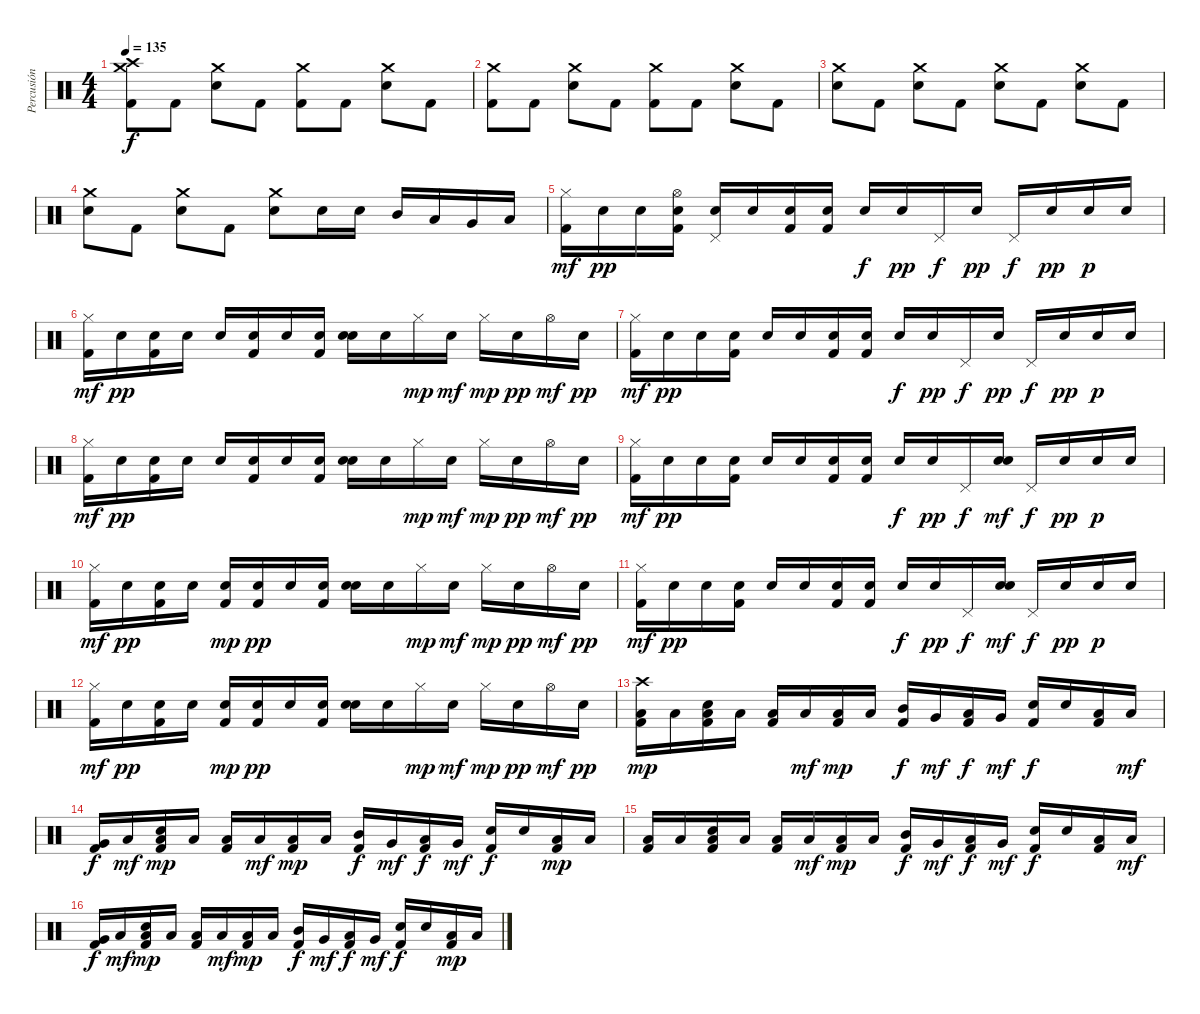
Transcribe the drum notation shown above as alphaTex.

\track ("Percusión" "Percusión") {instrument percussion}
\staff {score}
\articulation defaults
\ts (4 4)
\tempo 135
\clef neutral
\ks c
("Crash high (hit)" "Crash medium (hit)" "Kick (hit) 2").8{dy f} "Kick (hit) 2".8 ("Crash medium (hit)" "Electric Snare (hit)").8 "Kick (hit) 2".8 ("Crash medium (hit)" "Kick (hit) 2").8 "Kick (hit) 2".8 ("Crash medium (hit)" "Electric Snare (hit)").8 "Kick (hit) 2".8 |
("Crash medium (hit)" "Kick (hit) 2").8 "Kick (hit) 2".8 ("Crash medium (hit)" "Electric Snare (hit)").8 "Kick (hit) 2".8 ("Crash medium (hit)" "Kick (hit) 2").8 "Kick (hit) 2".8 ("Crash medium (hit)" "Electric Snare (hit)").8 "Kick (hit) 2".8 |
("Crash medium (hit)" "Electric Snare (hit)").8 "Kick (hit) 2".8 ("Crash medium (hit)" "Electric Snare (hit)").8 "Kick (hit) 2".8 ("Crash medium (hit)" "Electric Snare (hit)").8 "Kick (hit) 2".8 ("Crash medium (hit)" "Electric Snare (hit)").8 "Kick (hit) 2".8 |
("Crash medium (hit)" "Electric Snare (hit)").8 "Kick (hit) 2".8 ("Crash medium (hit)" "Electric Snare (hit)").8 "Kick (hit) 2".8 ("Crash medium (hit)" "Electric Snare (hit)").8 "Electric Snare (hit)".16 "Electric Snare (hit)".16 "Mid Tom (hit)".16 "Low Tom (hit)".16 "Very Low Tom (hit)".16 "Low Floor Tom (hit)".16 |
("Hi-Hat (closed)" "Kick (hit) 2").16{dy mf} "Electric Snare (hit)".16{dy pp} "Electric Snare (hit)".16 ("Hi-Hat (open)" "Electric Snare (hit)" "Kick (hit) 2").16 ("Pedal Hi-Hat (hit)" "Electric Snare (hit)").16 "Electric Snare (hit)".16 ("Electric Snare (hit)" "Kick (hit) 2").16 ("Electric Snare (hit)" "Kick (hit) 2").16 "Electric Snare (hit)".16{dy f} "Electric Snare (hit)".16{dy pp} "Pedal Hi-Hat (hit)".16{dy f} "Electric Snare (hit)".16{dy pp} "Pedal Hi-Hat (hit)".16{dy f} "Electric Snare (hit)".16{dy pp} "Electric Snare (hit)".16{dy p} "Electric Snare (hit)".16 |
("Hi-Hat (closed)" "Kick (hit) 2").16{dy mf} "Electric Snare (hit)".16{dy pp} ("Electric Snare (hit)" "Kick (hit) 2").16 "Electric Snare (hit)".16 "Electric Snare (hit)".16 ("Electric Snare (hit)" "Kick (hit) 2").16 "Electric Snare (hit)".16 ("Electric Snare (hit)" "Kick (hit) 2").16 ("Electric Snare (hit)" "Electric Snare (hit)").16 "Electric Snare (hit)".16 "Hi-Hat (closed)".16{dy mp} "Electric Snare (hit)".16{dy mf} "Hi-Hat (closed)".16{dy mp} "Electric Snare (hit)".16{dy pp} "Hi-Hat (open)".16{dy mf} "Electric Snare (hit)".16{dy pp} |
("Hi-Hat (closed)" "Kick (hit) 2").16{dy mf} "Electric Snare (hit)".16{dy pp} "Electric Snare (hit)".16 ("Electric Snare (hit)" "Kick (hit) 2").16 "Electric Snare (hit)".16 "Electric Snare (hit)".16 ("Electric Snare (hit)" "Kick (hit) 2").16 ("Electric Snare (hit)" "Kick (hit) 2").16 "Electric Snare (hit)".16{dy f} "Electric Snare (hit)".16{dy pp} "Pedal Hi-Hat (hit)".16{dy f} "Electric Snare (hit)".16{dy pp} "Pedal Hi-Hat (hit)".16{dy f} "Electric Snare (hit)".16{dy pp} "Electric Snare (hit)".16{dy p} "Electric Snare (hit)".16 |
("Hi-Hat (closed)" "Kick (hit) 2").16{dy mf} "Electric Snare (hit)".16{dy pp} ("Electric Snare (hit)" "Kick (hit) 2").16 "Electric Snare (hit)".16 "Electric Snare (hit)".16 ("Electric Snare (hit)" "Kick (hit) 2").16 "Electric Snare (hit)".16 ("Electric Snare (hit)" "Kick (hit) 2").16 ("Electric Snare (hit)" "Electric Snare (hit)").16 "Electric Snare (hit)".16 "Hi-Hat (closed)".16{dy mp} "Electric Snare (hit)".16{dy mf} "Hi-Hat (closed)".16{dy mp} "Electric Snare (hit)".16{dy pp} "Hi-Hat (open)".16{dy mf} "Electric Snare (hit)".16{dy pp} |
("Hi-Hat (closed)" "Kick (hit) 2").16{dy mf} "Electric Snare (hit)".16{dy pp} "Electric Snare (hit)".16 ("Electric Snare (hit)" "Kick (hit) 2").16 "Electric Snare (hit)".16 "Electric Snare (hit)".16 ("Electric Snare (hit)" "Kick (hit) 2").16 ("Electric Snare (hit)" "Kick (hit) 2").16 "Electric Snare (hit)".16{dy f} "Electric Snare (hit)".16{dy pp} "Pedal Hi-Hat (hit)".16{dy f} ("Electric Snare (hit)" "Electric Snare (hit)").16{dy mf} "Pedal Hi-Hat (hit)".16{dy f} "Electric Snare (hit)".16{dy pp} "Electric Snare (hit)".16{dy p} "Electric Snare (hit)".16 |
("Hi-Hat (closed)" "Kick (hit) 2").16{dy mf} "Electric Snare (hit)".16{dy pp} ("Electric Snare (hit)" "Kick (hit) 2").16 "Electric Snare (hit)".16 ("Electric Snare (hit)" "Kick (hit) 2").16{dy mp} ("Electric Snare (hit)" "Kick (hit) 2").16{dy pp} "Electric Snare (hit)".16 ("Electric Snare (hit)" "Kick (hit) 2").16 ("Electric Snare (hit)" "Electric Snare (hit)").16 "Electric Snare (hit)".16 "Hi-Hat (closed)".16{dy mp} "Electric Snare (hit)".16{dy mf} "Hi-Hat (closed)".16{dy mp} "Electric Snare (hit)".16{dy pp} "Hi-Hat (open)".16{dy mf} "Electric Snare (hit)".16{dy pp} |
("Hi-Hat (closed)" "Kick (hit) 2").16{dy mf} "Electric Snare (hit)".16{dy pp} "Electric Snare (hit)".16 ("Electric Snare (hit)" "Kick (hit) 2").16 "Electric Snare (hit)".16 "Electric Snare (hit)".16 ("Electric Snare (hit)" "Kick (hit) 2").16 ("Electric Snare (hit)" "Kick (hit) 2").16 "Electric Snare (hit)".16{dy f} "Electric Snare (hit)".16{dy pp} "Pedal Hi-Hat (hit)".16{dy f} ("Electric Snare (hit)" "Electric Snare (hit)").16{dy mf} "Pedal Hi-Hat (hit)".16{dy f} "Electric Snare (hit)".16{dy pp} "Electric Snare (hit)".16{dy p} "Electric Snare (hit)".16 |
("Hi-Hat (closed)" "Kick (hit) 2").16{dy mf} "Electric Snare (hit)".16{dy pp} ("Electric Snare (hit)" "Kick (hit) 2").16 "Electric Snare (hit)".16 ("Electric Snare (hit)" "Kick (hit) 2").16{dy mp} ("Electric Snare (hit)" "Kick (hit) 2").16{dy pp} "Electric Snare (hit)".16 ("Electric Snare (hit)" "Kick (hit) 2").16 ("Electric Snare (hit)" "Electric Snare (hit)").16 "Electric Snare (hit)".16 "Hi-Hat (closed)".16{dy mp} "Electric Snare (hit)".16{dy mf} "Hi-Hat (closed)".16{dy mp} "Electric Snare (hit)".16{dy pp} "Hi-Hat (open)".16{dy mf} "Electric Snare (hit)".16{dy pp} |
("Crash high (hit)" "Low Floor Tom (hit)" "Kick (hit) 2").16{dy mp} "Low Floor Tom (hit)".16 ("Low Floor Tom (hit)" "Electric Snare (hit)" "Kick (hit) 2").16 "Low Floor Tom (hit)".16 ("Low Floor Tom (hit)" "Kick (hit) 2").16 "Low Tom (hit)".16{dy mf} ("Low Floor Tom (hit)" "Kick (hit) 2").16{dy mp} "Low Floor Tom (hit)".16 ("Mid Tom (hit)" "Kick (hit) 2").16{dy f} "Very Low Tom (hit)".16{dy mf} ("Low Tom (hit)" "Kick (hit) 2").16{dy f} "Very Low Tom (hit)".16{dy mf} ("Electric Snare (hit)" "Kick (hit) 2").16{dy f} "Electric Snare (hit)".16 ("Low Tom (hit)" "Kick (hit) 2").16 "Low Floor Tom (hit)".16{dy mf} |
("Very Low Tom (hit)" "Kick (hit) 2").16{dy f} "Low Floor Tom (hit)".16{dy mf} ("Low Floor Tom (hit)" "Electric Snare (hit)" "Kick (hit) 2").16{dy mp} "Low Floor Tom (hit)".16 ("Low Floor Tom (hit)" "Kick (hit) 2").16 "Low Tom (hit)".16{dy mf} ("Low Floor Tom (hit)" "Kick (hit) 2").16{dy mp} "Low Floor Tom (hit)".16 ("Mid Tom (hit)" "Kick (hit) 2").16{dy f} "Very Low Tom (hit)".16{dy mf} ("Low Tom (hit)" "Kick (hit) 2").16{dy f} "Very Low Tom (hit)".16{dy mf} ("Electric Snare (hit)" "Kick (hit) 2").16{dy f} "Electric Snare (hit)".16 ("Low Floor Tom (hit)" "Kick (hit) 2").16{dy mp} "Low Floor Tom (hit)".16 |
("Low Floor Tom (hit)" "Kick (hit) 2").16 "Low Floor Tom (hit)".16 ("Low Floor Tom (hit)" "Electric Snare (hit)" "Kick (hit) 2").16 "Low Floor Tom (hit)".16 ("Low Floor Tom (hit)" "Kick (hit) 2").16 "Low Tom (hit)".16{dy mf} ("Low Floor Tom (hit)" "Kick (hit) 2").16{dy mp} "Low Floor Tom (hit)".16 ("Mid Tom (hit)" "Kick (hit) 2").16{dy f} "Very Low Tom (hit)".16{dy mf} ("Low Tom (hit)" "Kick (hit) 2").16{dy f} "Very Low Tom (hit)".16{dy mf} ("Electric Snare (hit)" "Kick (hit) 2").16{dy f} "Electric Snare (hit)".16 ("Low Tom (hit)" "Kick (hit) 2").16 "Low Floor Tom (hit)".16{dy mf} |
("Very Low Tom (hit)" "Kick (hit) 2").16{dy f} "Low Floor Tom (hit)".16{dy mf} ("Low Floor Tom (hit)" "Electric Snare (hit)" "Kick (hit) 2").16{dy mp} "Low Floor Tom (hit)".16 ("Low Floor Tom (hit)" "Kick (hit) 2").16 "Low Tom (hit)".16{dy mf} ("Low Floor Tom (hit)" "Kick (hit) 2").16{dy mp} "Low Floor Tom (hit)".16 ("Mid Tom (hit)" "Kick (hit) 2").16{dy f} "Very Low Tom (hit)".16{dy mf} ("Low Tom (hit)" "Kick (hit) 2").16{dy f} "Very Low Tom (hit)".16{dy mf} ("Electric Snare (hit)" "Kick (hit) 2").16{dy f} "Electric Snare (hit)".16 ("Low Floor Tom (hit)" "Kick (hit) 2").16{dy mp} "Low Floor Tom (hit)".16
